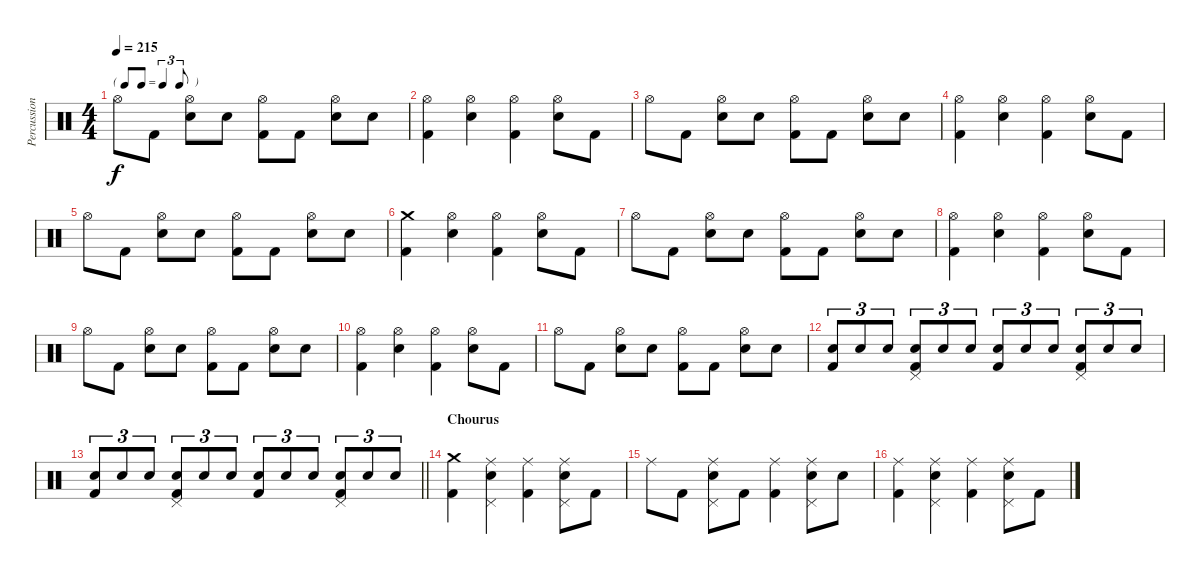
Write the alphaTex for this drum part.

\track ("Percussion" "Percussion") {instrument percussion}
\staff {score}
\articulation defaults
\ts (4 4)
\tf triplet8th
\tempo 215
\clef neutral
\ks c "Hi-Hat (open)".8{dy f} "Kick (hit) 2".8
("Hi-Hat (open)" "Snare (hit) 2").8 "Snare (hit) 2".8 ("Hi-Hat (open)" "Kick (hit) 2").8 "Kick (hit) 2".8 ("Hi-Hat (open)" "Snare (hit) 2").8 "Snare (hit) 2".8 |
("Hi-Hat (open)" "Kick (hit) 2").4 ("Hi-Hat (open)" "Snare (hit) 2").4 ("Hi-Hat (open)" "Kick (hit) 2").4 ("Hi-Hat (open)" "Snare (hit) 2").8 "Kick (hit) 2".8 |
"Hi-Hat (open)".8 "Kick (hit) 2".8 ("Hi-Hat (open)" "Snare (hit) 2").8 "Snare (hit) 2".8 ("Hi-Hat (open)" "Kick (hit) 2").8 "Kick (hit) 2".8 ("Hi-Hat (open)" "Snare (hit) 2").8 "Snare (hit) 2".8 |
("Hi-Hat (open)" "Kick (hit) 2").4 ("Hi-Hat (open)" "Snare (hit) 2").4 ("Hi-Hat (open)" "Kick (hit) 2").4 ("Hi-Hat (open)" "Snare (hit) 2").8 "Kick (hit) 2".8 |
"Hi-Hat (open)".8 "Kick (hit) 2".8 ("Hi-Hat (open)" "Snare (hit) 2").8 "Snare (hit) 2".8 ("Hi-Hat (open)" "Kick (hit) 2").8 "Kick (hit) 2".8 ("Hi-Hat (open)" "Snare (hit) 2").8 "Snare (hit) 2".8 |
("Crash medium (hit)" "Kick (hit) 2").4 ("Hi-Hat (open)" "Snare (hit) 2").4 ("Hi-Hat (open)" "Kick (hit) 2").4 ("Hi-Hat (open)" "Snare (hit) 2").8 "Kick (hit) 2".8 |
"Hi-Hat (open)".8 "Kick (hit) 2".8 ("Hi-Hat (open)" "Snare (hit) 2").8 "Snare (hit) 2".8 ("Hi-Hat (open)" "Kick (hit) 2").8 "Kick (hit) 2".8 ("Hi-Hat (open)" "Snare (hit) 2").8 "Snare (hit) 2".8 |
("Hi-Hat (open)" "Kick (hit) 2").4 ("Hi-Hat (open)" "Snare (hit) 2").4 ("Hi-Hat (open)" "Kick (hit) 2").4 ("Hi-Hat (open)" "Snare (hit) 2").8 "Kick (hit) 2".8 |
"Hi-Hat (open)".8 "Kick (hit) 2".8 ("Hi-Hat (open)" "Snare (hit) 2").8 "Snare (hit) 2".8 ("Hi-Hat (open)" "Kick (hit) 2").8 "Kick (hit) 2".8 ("Hi-Hat (open)" "Snare (hit) 2").8 "Snare (hit) 2".8 |
("Hi-Hat (open)" "Kick (hit) 2").4 ("Hi-Hat (open)" "Snare (hit) 2").4 ("Hi-Hat (open)" "Kick (hit) 2").4 ("Hi-Hat (open)" "Snare (hit) 2").8 "Kick (hit) 2".8 |
"Hi-Hat (open)".8 "Kick (hit) 2".8 ("Hi-Hat (open)" "Snare (hit) 2").8 "Snare (hit) 2".8 ("Hi-Hat (open)" "Kick (hit) 2").8 "Kick (hit) 2".8 ("Hi-Hat (open)" "Snare (hit) 2").8 "Snare (hit) 2".8 |
("Snare (hit) 2" "Kick (hit) 2").8{tu (3 2)} "Snare (hit) 2".8{tu (3 2)} "Snare (hit) 2".8{tu (3 2)} ("Snare (hit) 2" "Pedal Hi-Hat (hit)" "Kick (hit) 2").8{tu (3 2)} "Snare (hit) 2".8{tu (3 2)} "Snare (hit) 2".8{tu (3 2)} ("Snare (hit) 2" "Kick (hit) 2").8{tu (3 2)} "Snare (hit) 2".8{tu (3 2)} "Snare (hit) 2".8{tu (3 2)} ("Snare (hit) 2" "Pedal Hi-Hat (hit)" "Kick (hit) 2").8{tu (3 2)} "Snare (hit) 2".8{tu (3 2)} "Snare (hit) 2".8{tu (3 2)} |
\barLineRight lightlight
("Snare (hit) 2" "Kick (hit) 2").8{tu (3 2)} "Snare (hit) 2".8{tu (3 2)} "Snare (hit) 2".8{tu (3 2)} ("Snare (hit) 2" "Pedal Hi-Hat (hit)" "Kick (hit) 2").8{tu (3 2)} "Snare (hit) 2".8{tu (3 2)} "Snare (hit) 2".8{tu (3 2)} ("Snare (hit) 2" "Kick (hit) 2").8{tu (3 2)} "Snare (hit) 2".8{tu (3 2)} "Snare (hit) 2".8{tu (3 2)} ("Snare (hit) 2" "Pedal Hi-Hat (hit)" "Kick (hit) 2").8{tu (3 2)} "Snare (hit) 2".8{tu (3 2)} "Snare (hit) 2".8{tu (3 2)} |
\section ("" "Chourus")
("Crash medium (hit)" "Kick (hit) 2").4 ("Ride (middle)" "Snare (hit) 2" "Pedal Hi-Hat (hit)").4 ("Ride (middle)" "Kick (hit) 2").4 ("Ride (middle)" "Snare (hit) 2" "Pedal Hi-Hat (hit)").8 "Kick (hit) 2".8 |
"Ride (middle)".8 "Kick (hit) 2".8 ("Ride (middle)" "Snare (hit) 2" "Pedal Hi-Hat (hit)").8 "Kick (hit) 2".8 ("Ride (middle)" "Kick (hit) 2").4 ("Ride (middle)" "Snare (hit) 2" "Pedal Hi-Hat (hit)").8 "Snare (hit) 2".8 |
("Ride (middle)" "Kick (hit) 2").4 ("Ride (middle)" "Snare (hit) 2" "Pedal Hi-Hat (hit)").4 ("Ride (middle)" "Kick (hit) 2").4 ("Ride (middle)" "Snare (hit) 2" "Pedal Hi-Hat (hit)").8 "Kick (hit) 2".8
